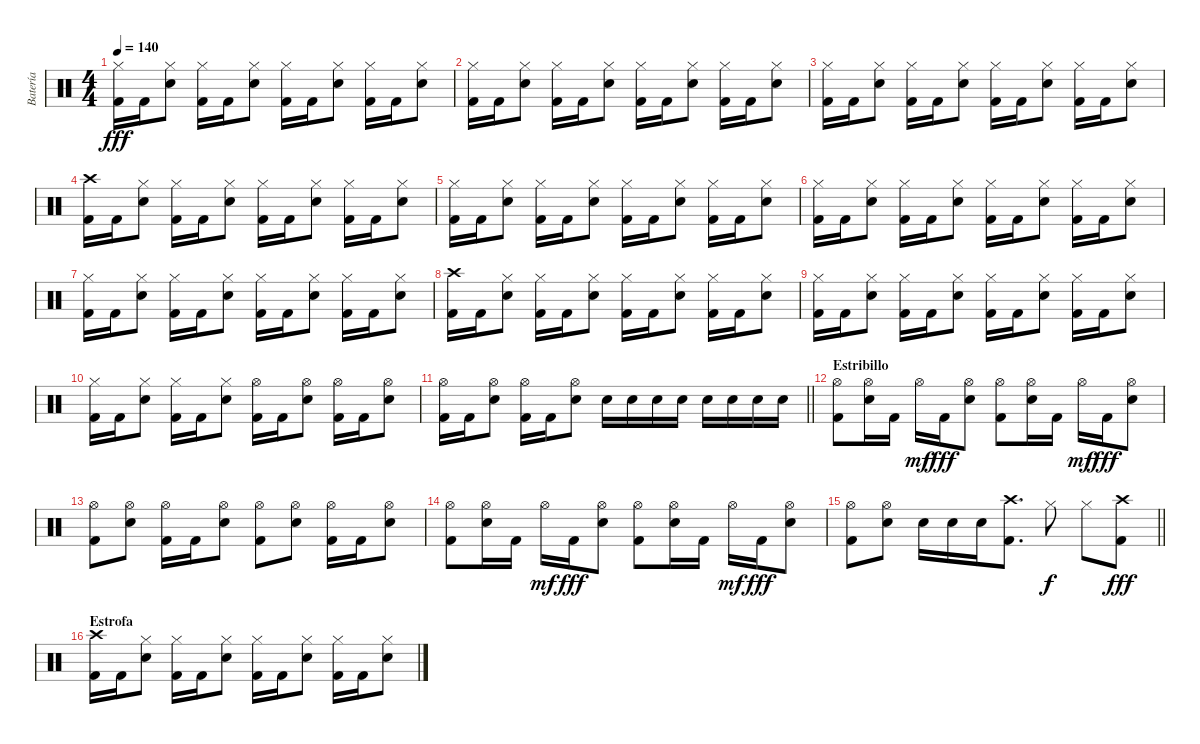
\track ("Batería" "Batería") {instrument percussion}
\staff {score}
\articulation defaults
\ts (4 4)
\tempo 140
\clef neutral
\ks c
("Hi-Hat (closed)" "Kick (hit) 2").16{dy fff} "Kick (hit) 2".16 ("Hi-Hat (closed)" "Electric Snare (hit)").8 ("Hi-Hat (closed)" "Kick (hit) 2").16 "Kick (hit) 2".16 ("Hi-Hat (closed)" "Electric Snare (hit)").8 ("Hi-Hat (closed)" "Kick (hit) 2").16 "Kick (hit) 2".16 ("Hi-Hat (closed)" "Electric Snare (hit)").8 ("Hi-Hat (closed)" "Kick (hit) 2").16 "Kick (hit) 2".16 ("Hi-Hat (closed)" "Electric Snare (hit)").8 |
("Hi-Hat (closed)" "Kick (hit) 2").16 "Kick (hit) 2".16 ("Hi-Hat (closed)" "Electric Snare (hit)").8 ("Hi-Hat (closed)" "Kick (hit) 2").16 "Kick (hit) 2".16 ("Hi-Hat (closed)" "Electric Snare (hit)").8 ("Hi-Hat (closed)" "Kick (hit) 2").16 "Kick (hit) 2".16 ("Hi-Hat (closed)" "Electric Snare (hit)").8 ("Hi-Hat (closed)" "Kick (hit) 2").16 "Kick (hit) 2".16 ("Hi-Hat (closed)" "Electric Snare (hit)").8 |
("Hi-Hat (closed)" "Kick (hit) 2").16 "Kick (hit) 2".16 ("Hi-Hat (closed)" "Electric Snare (hit)").8 ("Hi-Hat (closed)" "Kick (hit) 2").16 "Kick (hit) 2".16 ("Hi-Hat (closed)" "Electric Snare (hit)").8 ("Hi-Hat (closed)" "Kick (hit) 2").16 "Kick (hit) 2".16 ("Hi-Hat (closed)" "Electric Snare (hit)").8 ("Hi-Hat (closed)" "Kick (hit) 2").16 "Kick (hit) 2".16 ("Hi-Hat (closed)" "Electric Snare (hit)").8 |
("Crash high (hit)" "Kick (hit) 2").16 "Kick (hit) 2".16 ("Hi-Hat (closed)" "Electric Snare (hit)").8 ("Hi-Hat (closed)" "Kick (hit) 2").16 "Kick (hit) 2".16 ("Hi-Hat (closed)" "Electric Snare (hit)").8 ("Hi-Hat (closed)" "Kick (hit) 2").16 "Kick (hit) 2".16 ("Hi-Hat (closed)" "Electric Snare (hit)").8 ("Hi-Hat (closed)" "Kick (hit) 2").16 "Kick (hit) 2".16 ("Hi-Hat (closed)" "Electric Snare (hit)").8 |
("Hi-Hat (closed)" "Kick (hit) 2").16 "Kick (hit) 2".16 ("Hi-Hat (closed)" "Electric Snare (hit)").8 ("Hi-Hat (closed)" "Kick (hit) 2").16 "Kick (hit) 2".16 ("Hi-Hat (closed)" "Electric Snare (hit)").8 ("Hi-Hat (closed)" "Kick (hit) 2").16 "Kick (hit) 2".16 ("Hi-Hat (closed)" "Electric Snare (hit)").8 ("Hi-Hat (closed)" "Kick (hit) 2").16 "Kick (hit) 2".16 ("Hi-Hat (closed)" "Electric Snare (hit)").8 |
("Hi-Hat (closed)" "Kick (hit) 2").16 "Kick (hit) 2".16 ("Hi-Hat (closed)" "Electric Snare (hit)").8 ("Hi-Hat (closed)" "Kick (hit) 2").16 "Kick (hit) 2".16 ("Hi-Hat (closed)" "Electric Snare (hit)").8 ("Hi-Hat (closed)" "Kick (hit) 2").16 "Kick (hit) 2".16 ("Hi-Hat (closed)" "Electric Snare (hit)").8 ("Hi-Hat (closed)" "Kick (hit) 2").16 "Kick (hit) 2".16 ("Hi-Hat (closed)" "Electric Snare (hit)").8 |
("Hi-Hat (closed)" "Kick (hit) 2").16 "Kick (hit) 2".16 ("Hi-Hat (closed)" "Electric Snare (hit)").8 ("Hi-Hat (closed)" "Kick (hit) 2").16 "Kick (hit) 2".16 ("Hi-Hat (closed)" "Electric Snare (hit)").8 ("Hi-Hat (closed)" "Kick (hit) 2").16 "Kick (hit) 2".16 ("Hi-Hat (closed)" "Electric Snare (hit)").8 ("Hi-Hat (closed)" "Kick (hit) 2").16 "Kick (hit) 2".16 ("Hi-Hat (closed)" "Electric Snare (hit)").8 |
("Crash high (hit)" "Kick (hit) 2").16 "Kick (hit) 2".16 ("Hi-Hat (closed)" "Electric Snare (hit)").8 ("Hi-Hat (closed)" "Kick (hit) 2").16 "Kick (hit) 2".16 ("Hi-Hat (closed)" "Electric Snare (hit)").8 ("Hi-Hat (closed)" "Kick (hit) 2").16 "Kick (hit) 2".16 ("Hi-Hat (closed)" "Electric Snare (hit)").8 ("Hi-Hat (closed)" "Kick (hit) 2").16 "Kick (hit) 2".16 ("Hi-Hat (closed)" "Electric Snare (hit)").8 |
("Hi-Hat (closed)" "Kick (hit) 2").16 "Kick (hit) 2".16 ("Hi-Hat (closed)" "Electric Snare (hit)").8 ("Hi-Hat (closed)" "Kick (hit) 2").16 "Kick (hit) 2".16 ("Hi-Hat (closed)" "Electric Snare (hit)").8 ("Hi-Hat (closed)" "Kick (hit) 2").16 "Kick (hit) 2".16 ("Hi-Hat (closed)" "Electric Snare (hit)").8 ("Hi-Hat (closed)" "Kick (hit) 2").16 "Kick (hit) 2".16 ("Hi-Hat (closed)" "Electric Snare (hit)").8 |
("Hi-Hat (closed)" "Kick (hit) 2").16 "Kick (hit) 2".16 ("Hi-Hat (closed)" "Electric Snare (hit)").8 ("Hi-Hat (closed)" "Kick (hit) 2").16 "Kick (hit) 2".16 ("Hi-Hat (closed)" "Electric Snare (hit)").8 ("Hi-Hat (open)" "Kick (hit) 2").16 "Kick (hit) 2".16 ("Hi-Hat (open)" "Electric Snare (hit)").8 ("Hi-Hat (open)" "Kick (hit) 2").16 "Kick (hit) 2".16 ("Hi-Hat (open)" "Electric Snare (hit)").8 |
\barLineRight lightlight
("Hi-Hat (open)" "Kick (hit) 2").16 "Kick (hit) 2".16 ("Hi-Hat (open)" "Electric Snare (hit)").8 ("Hi-Hat (open)" "Kick (hit) 2").16 "Kick (hit) 2".16 ("Hi-Hat (open)" "Electric Snare (hit)").8 "Electric Snare (hit)".16 "Electric Snare (hit)".16 "Electric Snare (hit)".16 "Electric Snare (hit)".16 "Electric Snare (hit)".16 "Electric Snare (hit)".16 "Electric Snare (hit)".16 "Electric Snare (hit)".16 |
\section ("" "Estribillo")
("Hi-Hat (open)" "Kick (hit) 2").8 ("Hi-Hat (open)" "Electric Snare (hit)").16 "Kick (hit) 2".16 "Hi-Hat (open)".16{dy mf} "Kick (hit) 2".16{dy fff} ("Hi-Hat (open)" "Electric Snare (hit)").8 ("Hi-Hat (open)" "Kick (hit) 2").8 ("Hi-Hat (open)" "Electric Snare (hit)").16 "Kick (hit) 2".16 "Hi-Hat (open)".16{dy mf} "Kick (hit) 2".16{dy fff} ("Hi-Hat (open)" "Electric Snare (hit)").8 |
("Hi-Hat (open)" "Kick (hit) 2").8 ("Hi-Hat (open)" "Electric Snare (hit)").8 ("Hi-Hat (open)" "Kick (hit) 2").16 "Kick (hit) 2".16 ("Hi-Hat (open)" "Electric Snare (hit)").8 ("Hi-Hat (open)" "Kick (hit) 2").8 ("Hi-Hat (open)" "Electric Snare (hit)").8 ("Hi-Hat (open)" "Kick (hit) 2").16 "Kick (hit) 2".16 ("Hi-Hat (open)" "Electric Snare (hit)").8 |
("Hi-Hat (open)" "Kick (hit) 2").8 ("Hi-Hat (open)" "Electric Snare (hit)").16 "Kick (hit) 2".16 "Hi-Hat (open)".16{dy mf} "Kick (hit) 2".16{dy fff} ("Hi-Hat (open)" "Electric Snare (hit)").8 ("Hi-Hat (open)" "Kick (hit) 2").8 ("Hi-Hat (open)" "Electric Snare (hit)").16 "Kick (hit) 2".16 "Hi-Hat (open)".16{dy mf} "Kick (hit) 2".16{dy fff} ("Hi-Hat (open)" "Electric Snare (hit)").8 |
\barLineRight lightlight
("Hi-Hat (open)" "Kick (hit) 2").8 ("Hi-Hat (open)" "Electric Snare (hit)").8 "Electric Snare (hit)".16 "Electric Snare (hit)".16 "Electric Snare (hit)".16 ("Crash high (hit)" "Kick (hit) 2").8{d} "Hi-Hat (closed)".8{dy f} "Hi-Hat (closed)".8 ("Crash high (hit)" "Kick (hit) 2").8{dy fff} |
\section ("" "Estrofa")
("Crash high (hit)" "Kick (hit) 2").16 "Kick (hit) 2".16 ("Hi-Hat (closed)" "Electric Snare (hit)").8 ("Hi-Hat (closed)" "Kick (hit) 2").16 "Kick (hit) 2".16 ("Hi-Hat (closed)" "Electric Snare (hit)").8 ("Hi-Hat (closed)" "Kick (hit) 2").16 "Kick (hit) 2".16 ("Hi-Hat (closed)" "Electric Snare (hit)").8 ("Hi-Hat (closed)" "Kick (hit) 2").16 "Kick (hit) 2".16 ("Hi-Hat (closed)" "Electric Snare (hit)").8
